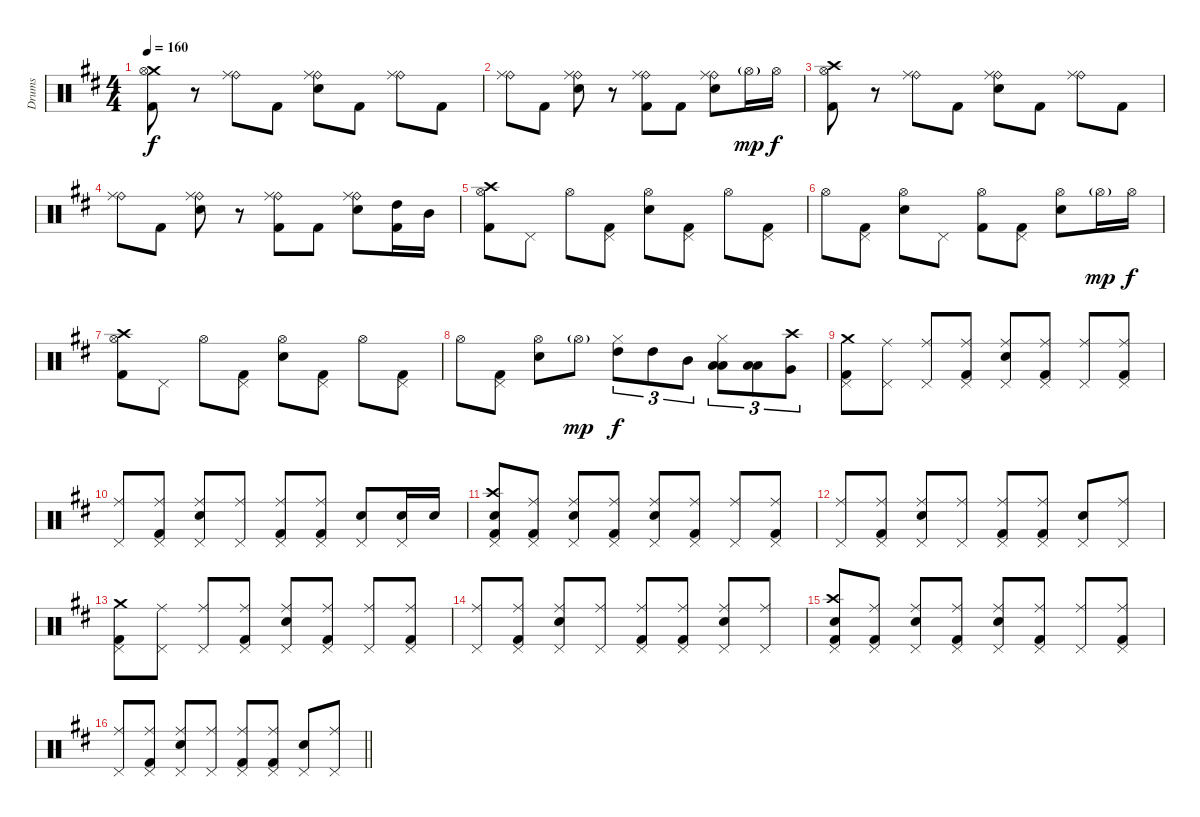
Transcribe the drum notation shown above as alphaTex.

\track ("Drums" "Drums") {instrument percussion}
\staff {score}
\articulation defaults
\ts (4 4)
\tempo 160
\clef neutral
\ks d
("Crash medium (hit)" "Hi-Hat (open)" "Kick (hit) 2").8{dy f} r.8 ("Ride (bell)" "Ride (middle)").8 "Kick (hit) 2".8 ("Ride (bell)" "Electric Snare (hit)" "Ride (middle)").8 "Kick (hit) 2".8 ("Ride (bell)" "Ride (middle)").8 "Kick (hit) 2".8 |
("Ride (bell)" "Ride (middle)").8 "Kick (hit) 2".8 ("Ride (bell)" "Electric Snare (hit)" "Ride (middle)").8 r.8 ("Ride (bell)" "Ride (middle)" "Kick (hit) 2").8 "Kick (hit) 2".8 ("Ride (bell)" "Electric Snare (hit)" "Ride (middle)").8 "Hi-Hat (open)"{g}.16{dy mp} "Hi-Hat (open)".16{dy f} |
("Crash high (hit)" "Hi-Hat (open)" "Kick (hit) 2").8 r.8 ("Ride (bell)" "Ride (middle)").8 "Kick (hit) 2".8 ("Ride (bell)" "Electric Snare (hit)" "Ride (middle)").8 "Kick (hit) 2".8 ("Ride (bell)" "Ride (middle)").8 "Kick (hit) 2".8 |
("Ride (bell)" "Ride (middle)").8 "Kick (hit) 2".8 ("Ride (bell)" "Electric Snare (hit)" "Ride (middle)").8 r.8 ("Ride (bell)" "Ride (middle)" "Kick (hit) 2").8 "Kick (hit) 2".8 ("Ride (bell)" "Electric Snare (hit)" "Ride (middle)").8 ("High Tom (hit)" "Kick (hit) 2").16 "Mid Tom (hit)".16 |
("Crash high (hit)" "Hi-Hat (open)" "Kick (hit) 2").8 "Pedal Hi-Hat (hit)".8 "Hi-Hat (open)".8 ("Pedal Hi-Hat (hit)" "Kick (hit) 2").8 ("Electric Snare (hit)" "Hi-Hat (open)").8 ("Pedal Hi-Hat (hit)" "Kick (hit) 2").8 "Hi-Hat (open)".8 ("Pedal Hi-Hat (hit)" "Kick (hit) 2").8 |
"Hi-Hat (open)".8 ("Pedal Hi-Hat (hit)" "Kick (hit) 2").8 ("Electric Snare (hit)" "Hi-Hat (open)").8 "Pedal Hi-Hat (hit)".8 ("Hi-Hat (open)" "Kick (hit) 2").8 ("Pedal Hi-Hat (hit)" "Kick (hit) 2").8 ("Electric Snare (hit)" "Hi-Hat (open)").8 "Hi-Hat (open)"{g}.16{dy mp} "Hi-Hat (open)".16{dy f} |
("Crash high (hit)" "Hi-Hat (open)" "Kick (hit) 2").8 "Pedal Hi-Hat (hit)".8 "Hi-Hat (open)".8 ("Pedal Hi-Hat (hit)" "Kick (hit) 2").8 ("Electric Snare (hit)" "Hi-Hat (open)").8 ("Pedal Hi-Hat (hit)" "Kick (hit) 2").8 "Hi-Hat (open)".8 ("Pedal Hi-Hat (hit)" "Kick (hit) 2").8 |
"Hi-Hat (open)".8 ("Pedal Hi-Hat (hit)" "Kick (hit) 2").8 ("Electric Snare (hit)" "Hi-Hat (open)").8 "Hi-Hat (open)"{g}.8{dy mp} ("High Tom (hit)" "Hi-Hat (closed)").8{tu (3 2) dy f} "High Tom (hit)".8{tu (3 2)} "Mid Tom (hit)".8{tu (3 2)} ("Low Tom (hit)" "Low Floor Tom (hit)" "Hi-Hat (closed)").8{tu (3 2)} ("Low Tom (hit)" "Low Floor Tom (hit)").8{tu (3 2)} ("Crash high (hit)" "Very Low Tom (hit)").8{tu (3 2)} |
("Crash medium (hit)" "Pedal Hi-Hat (hit)" "Kick (hit) 2").8 ("Ride (middle)" "Pedal Hi-Hat (hit)").8 ("Ride (middle)" "Pedal Hi-Hat (hit)").8 ("Ride (middle)" "Pedal Hi-Hat (hit)" "Kick (hit) 2").8 ("Ride (middle)" "Electric Snare (hit)" "Pedal Hi-Hat (hit)").8 ("Ride (middle)" "Pedal Hi-Hat (hit)" "Kick (hit) 2").8 ("Ride (middle)" "Pedal Hi-Hat (hit)").8 ("Ride (middle)" "Pedal Hi-Hat (hit)" "Kick (hit) 2").8 |
("Ride (middle)" "Pedal Hi-Hat (hit)").8 ("Ride (middle)" "Pedal Hi-Hat (hit)" "Kick (hit) 2").8 ("Ride (middle)" "Electric Snare (hit)" "Pedal Hi-Hat (hit)").8 ("Ride (middle)" "Pedal Hi-Hat (hit)").8 ("Ride (middle)" "Pedal Hi-Hat (hit)" "Kick (hit) 2").8 ("Ride (middle)" "Pedal Hi-Hat (hit)" "Kick (hit) 2").8 ("Snare (hit) 2" "Pedal Hi-Hat (hit)").8 ("Snare (hit) 2" "Pedal Hi-Hat (hit)").16 "Snare (hit) 2".16 |
("Crash high (hit)" "Electric Snare (hit)" "Pedal Hi-Hat (hit)" "Kick (hit) 2").8 ("Ride (middle)" "Pedal Hi-Hat (hit)" "Kick (hit) 2").8 ("Ride (middle)" "Electric Snare (hit)" "Pedal Hi-Hat (hit)").8 ("Ride (middle)" "Pedal Hi-Hat (hit)" "Kick (hit) 2").8 ("Ride (middle)" "Electric Snare (hit)" "Pedal Hi-Hat (hit)").8 ("Ride (middle)" "Pedal Hi-Hat (hit)" "Kick (hit) 2").8 ("Ride (middle)" "Pedal Hi-Hat (hit)").8 ("Ride (middle)" "Pedal Hi-Hat (hit)" "Kick (hit) 2").8 |
("Ride (middle)" "Pedal Hi-Hat (hit)").8 ("Ride (middle)" "Pedal Hi-Hat (hit)" "Kick (hit) 2").8 ("Ride (middle)" "Electric Snare (hit)" "Pedal Hi-Hat (hit)").8 ("Ride (middle)" "Pedal Hi-Hat (hit)").8 ("Ride (middle)" "Pedal Hi-Hat (hit)" "Kick (hit) 2").8 ("Ride (middle)" "Pedal Hi-Hat (hit)" "Kick (hit) 2").8 ("Electric Snare (hit)" "Pedal Hi-Hat (hit)").8 ("Ride (middle)" "Pedal Hi-Hat (hit)").8 |
("Crash medium (hit)" "Pedal Hi-Hat (hit)" "Kick (hit) 2").8 ("Ride (middle)" "Pedal Hi-Hat (hit)").8 ("Ride (middle)" "Pedal Hi-Hat (hit)").8 ("Ride (middle)" "Pedal Hi-Hat (hit)" "Kick (hit) 2").8 ("Ride (middle)" "Electric Snare (hit)" "Pedal Hi-Hat (hit)").8 ("Ride (middle)" "Pedal Hi-Hat (hit)" "Kick (hit) 2").8 ("Ride (middle)" "Pedal Hi-Hat (hit)").8 ("Ride (middle)" "Pedal Hi-Hat (hit)" "Kick (hit) 2").8 |
("Ride (middle)" "Pedal Hi-Hat (hit)").8 ("Ride (middle)" "Pedal Hi-Hat (hit)" "Kick (hit) 2").8 ("Ride (middle)" "Electric Snare (hit)" "Pedal Hi-Hat (hit)").8 ("Ride (middle)" "Pedal Hi-Hat (hit)").8 ("Ride (middle)" "Pedal Hi-Hat (hit)" "Kick (hit) 2").8 ("Ride (middle)" "Pedal Hi-Hat (hit)" "Kick (hit) 2").8 ("Ride (middle)" "Electric Snare (hit)" "Pedal Hi-Hat (hit)").8 ("Ride (middle)" "Pedal Hi-Hat (hit)").8 |
("Crash high (hit)" "Electric Snare (hit)" "Pedal Hi-Hat (hit)" "Kick (hit) 2").8 ("Ride (middle)" "Pedal Hi-Hat (hit)" "Kick (hit) 2").8 ("Ride (middle)" "Electric Snare (hit)" "Pedal Hi-Hat (hit)").8 ("Ride (middle)" "Pedal Hi-Hat (hit)" "Kick (hit) 2").8 ("Ride (middle)" "Electric Snare (hit)" "Pedal Hi-Hat (hit)").8 ("Ride (middle)" "Pedal Hi-Hat (hit)" "Kick (hit) 2").8 ("Ride (middle)" "Pedal Hi-Hat (hit)").8 ("Ride (middle)" "Pedal Hi-Hat (hit)" "Kick (hit) 2").8 |
\barLineRight lightlight
("Ride (middle)" "Pedal Hi-Hat (hit)").8 ("Ride (middle)" "Pedal Hi-Hat (hit)" "Kick (hit) 2").8 ("Ride (middle)" "Electric Snare (hit)" "Pedal Hi-Hat (hit)").8 ("Ride (middle)" "Pedal Hi-Hat (hit)").8 ("Ride (middle)" "Pedal Hi-Hat (hit)" "Kick (hit) 2").8 ("Ride (middle)" "Pedal Hi-Hat (hit)" "Kick (hit) 2").8 ("Electric Snare (hit)" "Pedal Hi-Hat (hit)").8 ("Ride (middle)" "Pedal Hi-Hat (hit)").8
